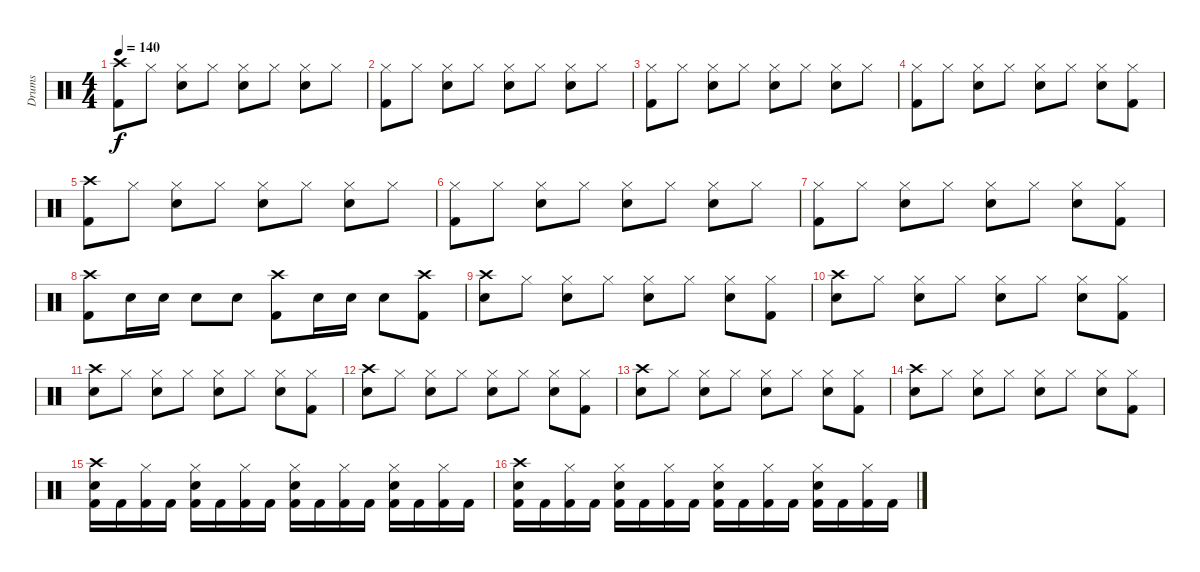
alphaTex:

\track ("Drums" "Drums") {instrument percussion}
\staff {score}
\articulation defaults
\ts (4 4)
\tempo 140
\clef neutral
\ks c
("Crash high (hit)" "Kick (hit) 2").8{dy f} "Hi-Hat (closed)".8 ("Hi-Hat (closed)" "Snare (hit) 2").8 "Hi-Hat (closed)".8 ("Hi-Hat (closed)" "Snare (hit) 2").8 "Hi-Hat (closed)".8 ("Hi-Hat (closed)" "Snare (hit) 2").8 "Hi-Hat (closed)".8 |
("Hi-Hat (closed)" "Kick (hit) 2").8 "Hi-Hat (closed)".8 ("Hi-Hat (closed)" "Snare (hit) 2").8 "Hi-Hat (closed)".8 ("Hi-Hat (closed)" "Snare (hit) 2").8 "Hi-Hat (closed)".8 ("Hi-Hat (closed)" "Snare (hit) 2").8 "Hi-Hat (closed)".8 |
("Hi-Hat (closed)" "Kick (hit) 2").8 "Hi-Hat (closed)".8 ("Hi-Hat (closed)" "Snare (hit) 2").8 "Hi-Hat (closed)".8 ("Hi-Hat (closed)" "Snare (hit) 2").8 "Hi-Hat (closed)".8 ("Hi-Hat (closed)" "Snare (hit) 2").8 "Hi-Hat (closed)".8 |
("Hi-Hat (closed)" "Kick (hit) 2").8 "Hi-Hat (closed)".8 ("Hi-Hat (closed)" "Snare (hit) 2").8 "Hi-Hat (closed)".8 ("Hi-Hat (closed)" "Snare (hit) 2").8 "Hi-Hat (closed)".8 ("Hi-Hat (closed)" "Snare (hit) 2").8 ("Hi-Hat (closed)" "Kick (hit) 2").8 |
("Crash high (hit)" "Kick (hit) 2").8 "Hi-Hat (closed)".8 ("Hi-Hat (closed)" "Snare (hit) 2").8 "Hi-Hat (closed)".8 ("Hi-Hat (closed)" "Snare (hit) 2").8 "Hi-Hat (closed)".8 ("Hi-Hat (closed)" "Snare (hit) 2").8 "Hi-Hat (closed)".8 |
("Hi-Hat (closed)" "Kick (hit) 2").8 "Hi-Hat (closed)".8 ("Hi-Hat (closed)" "Snare (hit) 2").8 "Hi-Hat (closed)".8 ("Hi-Hat (closed)" "Snare (hit) 2").8 "Hi-Hat (closed)".8 ("Hi-Hat (closed)" "Snare (hit) 2").8 "Hi-Hat (closed)".8 |
("Hi-Hat (closed)" "Kick (hit) 2").8 "Hi-Hat (closed)".8 ("Hi-Hat (closed)" "Snare (hit) 2").8 "Hi-Hat (closed)".8 ("Hi-Hat (closed)" "Snare (hit) 2").8 "Hi-Hat (closed)".8 ("Hi-Hat (closed)" "Snare (hit) 2").8 ("Hi-Hat (closed)" "Kick (hit) 2").8 |
("Crash high (hit)" "Kick (hit) 2").8 "Snare (hit) 2".16 "Snare (hit) 2".16 "Snare (hit) 2".8 "Snare (hit) 2".8 ("Crash high (hit)" "Kick (hit) 2").8 "Snare (hit) 2".16 "Snare (hit) 2".16 "Snare (hit) 2".8 ("Crash high (hit)" "Kick (hit) 2").8 |
("Crash high (hit)" "Snare (hit) 2").8 "Hi-Hat (closed)".8 ("Hi-Hat (closed)" "Snare (hit) 2").8 "Hi-Hat (closed)".8 ("Hi-Hat (closed)" "Snare (hit) 2").8 "Hi-Hat (closed)".8 ("Hi-Hat (closed)" "Snare (hit) 2").8 ("Hi-Hat (closed)" "Kick (hit) 2").8 |
("Crash high (hit)" "Snare (hit) 2").8 "Hi-Hat (closed)".8 ("Hi-Hat (closed)" "Snare (hit) 2").8 "Hi-Hat (closed)".8 ("Hi-Hat (closed)" "Snare (hit) 2").8 "Hi-Hat (closed)".8 ("Hi-Hat (closed)" "Snare (hit) 2").8 ("Hi-Hat (closed)" "Kick (hit) 2").8 |
("Crash high (hit)" "Snare (hit) 2").8 "Hi-Hat (closed)".8 ("Hi-Hat (closed)" "Snare (hit) 2").8 "Hi-Hat (closed)".8 ("Hi-Hat (closed)" "Snare (hit) 2").8 "Hi-Hat (closed)".8 ("Hi-Hat (closed)" "Snare (hit) 2").8 ("Hi-Hat (closed)" "Kick (hit) 2").8 |
("Crash high (hit)" "Snare (hit) 2").8 "Hi-Hat (closed)".8 ("Hi-Hat (closed)" "Snare (hit) 2").8 "Hi-Hat (closed)".8 ("Hi-Hat (closed)" "Snare (hit) 2").8 "Hi-Hat (closed)".8 ("Hi-Hat (closed)" "Snare (hit) 2").8 ("Hi-Hat (closed)" "Kick (hit) 2").8 |
("Crash high (hit)" "Snare (hit) 2").8 "Hi-Hat (closed)".8 ("Hi-Hat (closed)" "Snare (hit) 2").8 "Hi-Hat (closed)".8 ("Hi-Hat (closed)" "Snare (hit) 2").8 "Hi-Hat (closed)".8 ("Hi-Hat (closed)" "Snare (hit) 2").8 ("Hi-Hat (closed)" "Kick (hit) 2").8 |
("Crash high (hit)" "Snare (hit) 2").8 "Hi-Hat (closed)".8 ("Hi-Hat (closed)" "Snare (hit) 2").8 "Hi-Hat (closed)".8 ("Hi-Hat (closed)" "Snare (hit) 2").8 "Hi-Hat (closed)".8 ("Hi-Hat (closed)" "Snare (hit) 2").8 ("Hi-Hat (closed)" "Kick (hit) 2").8 |
("Crash high (hit)" "Snare (hit) 2" "Kick (hit) 2").16 "Kick (hit) 2".16 ("Hi-Hat (closed)" "Kick (hit) 2").16 "Kick (hit) 2".16 ("Hi-Hat (closed)" "Snare (hit) 2" "Kick (hit) 2").16 "Kick (hit) 2".16 ("Hi-Hat (closed)" "Kick (hit) 2").16 "Kick (hit) 2".16 ("Hi-Hat (closed)" "Snare (hit) 2" "Kick (hit) 2").16 "Kick (hit) 2".16 ("Hi-Hat (closed)" "Kick (hit) 2").16 "Kick (hit) 2".16 ("Hi-Hat (closed)" "Snare (hit) 2" "Kick (hit) 2").16 "Kick (hit) 2".16 ("Hi-Hat (closed)" "Kick (hit) 2").16 "Kick (hit) 2".16 |
("Crash high (hit)" "Snare (hit) 2" "Kick (hit) 2").16 "Kick (hit) 2".16 ("Hi-Hat (closed)" "Kick (hit) 2").16 "Kick (hit) 2".16 ("Hi-Hat (closed)" "Snare (hit) 2" "Kick (hit) 2").16 "Kick (hit) 2".16 ("Hi-Hat (closed)" "Kick (hit) 2").16 "Kick (hit) 2".16 ("Hi-Hat (closed)" "Snare (hit) 2" "Kick (hit) 2").16 "Kick (hit) 2".16 ("Hi-Hat (closed)" "Kick (hit) 2").16 "Kick (hit) 2".16 ("Hi-Hat (closed)" "Snare (hit) 2" "Kick (hit) 2").16 "Kick (hit) 2".16 ("Hi-Hat (closed)" "Kick (hit) 2").16 "Kick (hit) 2".16
